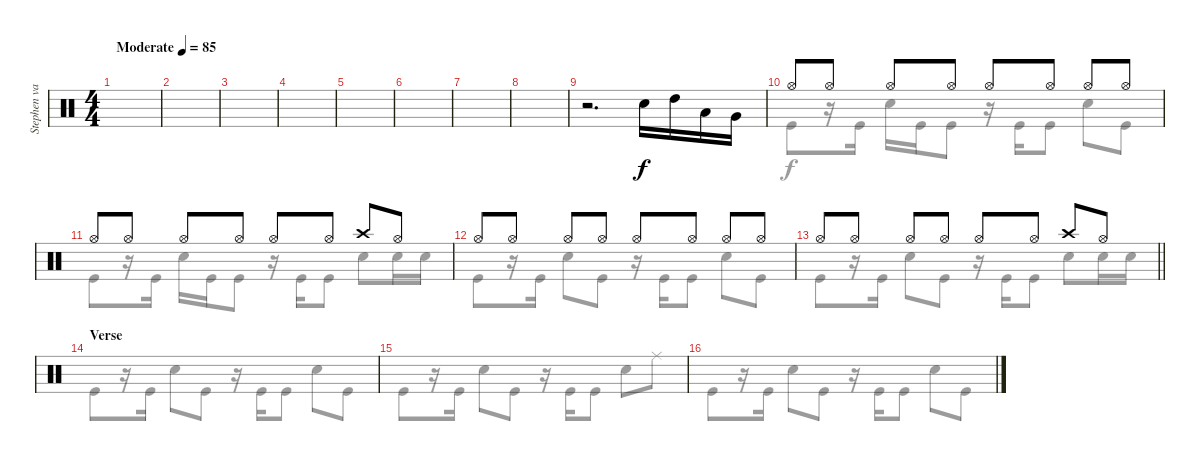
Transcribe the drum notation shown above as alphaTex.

\track ("Stephen van Haestregt - Drums" "Stephen va") {instrument percussion}
\staff {score}
\articulation defaults
\voice
\ts (4 4)
\tempo (85 "Moderate")
\clef neutral
\ks c
|
|
|
|
|
|
|
|
r.2{d} "Snare (hit) 2".16 "High Tom (hit)".16 "Low Tom (hit)".16 "Very Low Tom (hit)".16 |
"Hi-Hat (open)".8 "Hi-Hat (open)".8 "Hi-Hat (open)".8 "Hi-Hat (open)".8 "Hi-Hat (open)".8 "Hi-Hat (open)".8 "Hi-Hat (open)".8 "Hi-Hat (open)".8 |
"Hi-Hat (open)".8 "Hi-Hat (open)".8 "Hi-Hat (open)".8 "Hi-Hat (open)".8 "Hi-Hat (open)".8 "Hi-Hat (open)".8 "Crash high (hit)".8 "Hi-Hat (open)".8 |
"Hi-Hat (open)".8 "Hi-Hat (open)".8 "Hi-Hat (open)".8 "Hi-Hat (open)".8 "Hi-Hat (open)".8 "Hi-Hat (open)".8 "Hi-Hat (open)".8 "Hi-Hat (open)".8 |
\barLineRight lightlight "Hi-Hat (open)".8 "Hi-Hat (open)".8 "Hi-Hat (open)".8 "Hi-Hat (open)".8 "Hi-Hat (open)".8 "Hi-Hat (open)".8 "Crash high (hit)".8 "Hi-Hat (open)".8
|
\section ("" "Verse")
|
|
\voice
\clef neutral
\ottava regular
\simile none
\ks c
|
|
|
|
|
|
|
|
|
"Kick (hit)".8 r.16 "Kick (hit)".16 "Snare (hit) 2".16 "Kick (hit)".16 "Kick (hit)".8 r.16 "Kick (hit)".16 "Kick (hit)".8 "Snare (hit) 2".8 "Kick (hit)".8 |
"Kick (hit)".8 r.16 "Kick (hit)".16 "Snare (hit) 2".16 "Kick (hit)".16 "Kick (hit)".8 r.16 "Kick (hit)".16 "Kick (hit)".8 "Snare (hit) 2".8 "Snare (hit) 2".16 "Snare (hit) 2".16 |
"Kick (hit)".8 r.16 "Kick (hit)".16 "Snare (hit) 2".8 "Kick (hit)".8 r.16 "Kick (hit)".16 "Kick (hit)".8 "Snare (hit) 2".8 "Kick (hit)".8 |
\barLineRight lightlight "Kick (hit)".8
r.16 "Kick (hit)".16 "Snare (hit) 2".8 "Kick (hit)".8 r.16 "Kick (hit)".16 "Kick (hit)".8 "Snare (hit) 2".8 "Snare (hit) 2".16 "Snare (hit) 2".16 |
"Kick (hit)".8 r.16 "Kick (hit)".16 "Snare (hit) 2".8 "Kick (hit)".8 r.16 "Kick (hit)".16 "Kick (hit)".8 "Snare (hit) 2".8 "Kick (hit)".8 |
"Kick (hit)".8 r.16 "Kick (hit)".16 "Snare (hit) 2".8 "Kick (hit)".8 r.16 "Kick (hit)".16 "Kick (hit)".8 "Snare (hit) 2".8 "Ride (middle)".8 |
"Kick (hit)".8 r.16 "Kick (hit)".16 "Snare (hit) 2".8 "Kick (hit)".8 r.16 "Kick (hit)".16 "Kick (hit)".8 "Snare (hit) 2".8 "Kick (hit)".8
